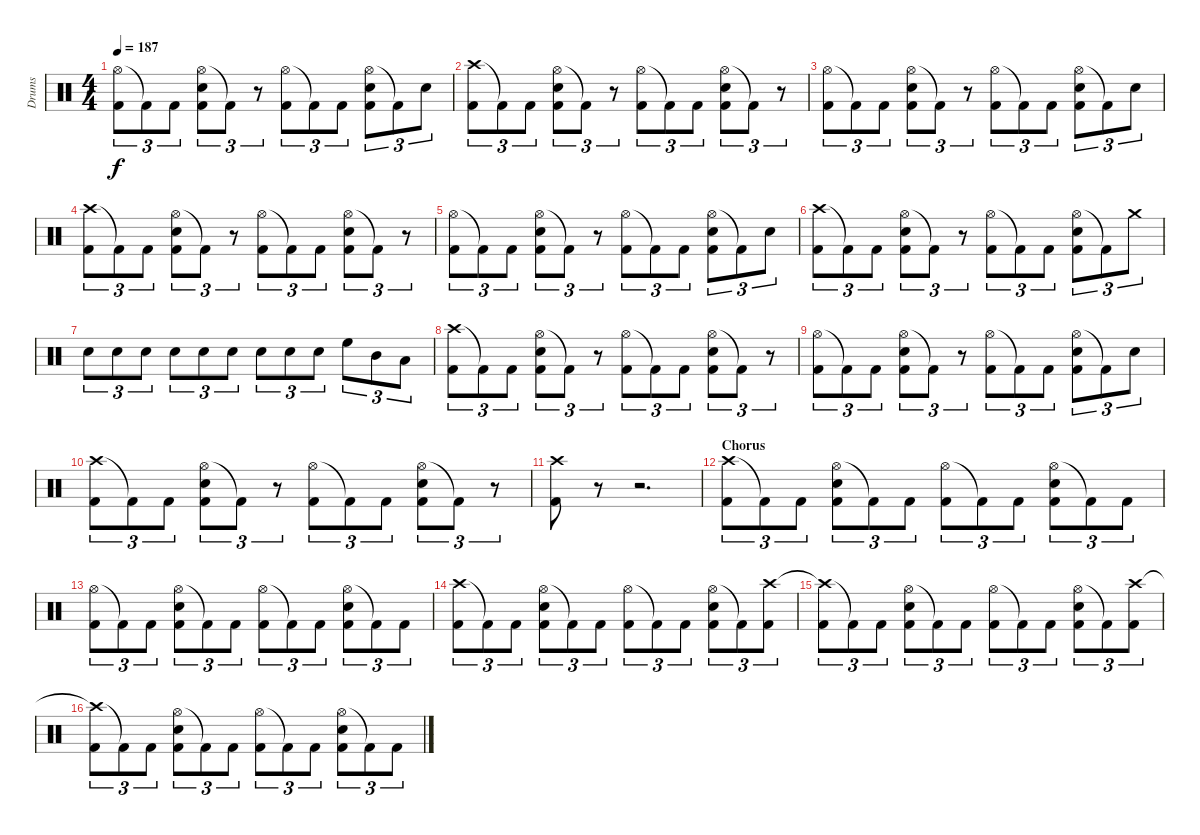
\track ("Drums" "Drums") {instrument percussion}
\staff {score}
\articulation defaults
\ts (4 4)
\tempo 187
\clef neutral
\ks c
("Hi-Hat (open)" "Kick (hit) 2").8{tu (3 2) dy f} "Kick (hit) 2"{t}.8{tu (3 2)} "Kick (hit) 2".8{tu (3 2)} ("Hi-Hat (open)" "Snare (hit) 2" "Kick (hit) 2").8{tu (3 2)} "Kick (hit) 2"{t}.8{tu (3 2)} r.8{tu (3 2)} ("Hi-Hat (open)" "Kick (hit) 2").8{tu (3 2)} "Kick (hit) 2"{t}.8{tu (3 2)} "Kick (hit) 2".8{tu (3 2)} ("Hi-Hat (open)" "Snare (hit) 2" "Kick (hit) 2").8{tu (3 2)} "Kick (hit) 2"{t}.8{tu (3 2)} "Snare (hit) 2".8{tu (3 2)} |
("Crash high (hit)" "Kick (hit) 2").8{tu (3 2)} "Kick (hit) 2"{t}.8{tu (3 2)} "Kick (hit) 2".8{tu (3 2)} ("Hi-Hat (open)" "Snare (hit) 2" "Kick (hit) 2").8{tu (3 2)} "Kick (hit) 2"{t}.8{tu (3 2)} r.8{tu (3 2)} ("Hi-Hat (open)" "Kick (hit) 2").8{tu (3 2)} "Kick (hit) 2"{t}.8{tu (3 2)} "Kick (hit) 2".8{tu (3 2)} ("Hi-Hat (open)" "Snare (hit) 2" "Kick (hit) 2").8{tu (3 2)} "Kick (hit) 2"{t}.8{tu (3 2)} r.8{tu (3 2)} |
("Hi-Hat (open)" "Kick (hit) 2").8{tu (3 2)} "Kick (hit) 2"{t}.8{tu (3 2)} "Kick (hit) 2".8{tu (3 2)} ("Hi-Hat (open)" "Snare (hit) 2" "Kick (hit) 2").8{tu (3 2)} "Kick (hit) 2"{t}.8{tu (3 2)} r.8{tu (3 2)} ("Hi-Hat (open)" "Kick (hit) 2").8{tu (3 2)} "Kick (hit) 2"{t}.8{tu (3 2)} "Kick (hit) 2".8{tu (3 2)} ("Hi-Hat (open)" "Snare (hit) 2" "Kick (hit) 2").8{tu (3 2)} "Kick (hit) 2"{t}.8{tu (3 2)} "Snare (hit) 2".8{tu (3 2)} |
("Crash high (hit)" "Kick (hit) 2").8{tu (3 2)} "Kick (hit) 2"{t}.8{tu (3 2)} "Kick (hit) 2".8{tu (3 2)} ("Hi-Hat (open)" "Snare (hit) 2" "Kick (hit) 2").8{tu (3 2)} "Kick (hit) 2"{t}.8{tu (3 2)} r.8{tu (3 2)} ("Hi-Hat (open)" "Kick (hit) 2").8{tu (3 2)} "Kick (hit) 2"{t}.8{tu (3 2)} "Kick (hit) 2".8{tu (3 2)} ("Hi-Hat (open)" "Snare (hit) 2" "Kick (hit) 2").8{tu (3 2)} "Kick (hit) 2"{t}.8{tu (3 2)} r.8{tu (3 2)} |
("Hi-Hat (open)" "Kick (hit) 2").8{tu (3 2)} "Kick (hit) 2"{t}.8{tu (3 2)} "Kick (hit) 2".8{tu (3 2)} ("Hi-Hat (open)" "Snare (hit) 2" "Kick (hit) 2").8{tu (3 2)} "Kick (hit) 2"{t}.8{tu (3 2)} r.8{tu (3 2)} ("Hi-Hat (open)" "Kick (hit) 2").8{tu (3 2)} "Kick (hit) 2"{t}.8{tu (3 2)} "Kick (hit) 2".8{tu (3 2)} ("Hi-Hat (open)" "Snare (hit) 2" "Kick (hit) 2").8{tu (3 2)} "Kick (hit) 2"{t}.8{tu (3 2)} "Snare (hit) 2".8{tu (3 2)} |
("Crash high (hit)" "Kick (hit) 2").8{tu (3 2)} "Kick (hit) 2"{t}.8{tu (3 2)} "Kick (hit) 2".8{tu (3 2)} ("Hi-Hat (open)" "Snare (hit) 2" "Kick (hit) 2").8{tu (3 2)} "Kick (hit) 2"{t}.8{tu (3 2)} r.8{tu (3 2)} ("Hi-Hat (open)" "Kick (hit) 2").8{tu (3 2)} "Kick (hit) 2"{t}.8{tu (3 2)} "Kick (hit) 2".8{tu (3 2)} ("Hi-Hat (open)" "Snare (hit) 2" "Kick (hit) 2").8{tu (3 2)} "Kick (hit) 2"{t}.8{tu (3 2)} "Crash medium (hit)".8{tu (3 2)} |
"Snare (hit) 2".8{tu (3 2)} "Snare (hit) 2".8{tu (3 2)} "Snare (hit) 2".8{tu (3 2)} "Snare (hit) 2".8{tu (3 2)} "Snare (hit) 2".8{tu (3 2)} "Snare (hit) 2".8{tu (3 2)} "Snare (hit) 2".8{tu (3 2)} "Snare (hit) 2".8{tu (3 2)} "Snare (hit) 2".8{tu (3 2)} "High Floor Tom (hit)".8{tu (3 2)} "Mid Tom (hit)".8{tu (3 2)} "Low Tom (hit)".8{tu (3 2)} |
("Crash high (hit)" "Kick (hit) 2").8{tu (3 2)} "Kick (hit) 2"{t}.8{tu (3 2)} "Kick (hit) 2".8{tu (3 2)} ("Hi-Hat (open)" "Snare (hit) 2" "Kick (hit) 2").8{tu (3 2)} "Kick (hit) 2"{t}.8{tu (3 2)} r.8{tu (3 2)} ("Hi-Hat (open)" "Kick (hit) 2").8{tu (3 2)} "Kick (hit) 2"{t}.8{tu (3 2)} "Kick (hit) 2".8{tu (3 2)} ("Hi-Hat (open)" "Snare (hit) 2" "Kick (hit) 2").8{tu (3 2)} "Kick (hit) 2"{t}.8{tu (3 2)} r.8{tu (3 2)} |
("Hi-Hat (open)" "Kick (hit) 2").8{tu (3 2)} "Kick (hit) 2"{t}.8{tu (3 2)} "Kick (hit) 2".8{tu (3 2)} ("Hi-Hat (open)" "Snare (hit) 2" "Kick (hit) 2").8{tu (3 2)} "Kick (hit) 2"{t}.8{tu (3 2)} r.8{tu (3 2)} ("Hi-Hat (open)" "Kick (hit) 2").8{tu (3 2)} "Kick (hit) 2"{t}.8{tu (3 2)} "Kick (hit) 2".8{tu (3 2)} ("Hi-Hat (open)" "Snare (hit) 2" "Kick (hit) 2").8{tu (3 2)} "Kick (hit) 2"{t}.8{tu (3 2)} "Snare (hit) 2".8{tu (3 2)} |
("Crash high (hit)" "Kick (hit) 2").8{tu (3 2)} "Kick (hit) 2"{t}.8{tu (3 2)} "Kick (hit) 2".8{tu (3 2)} ("Hi-Hat (open)" "Snare (hit) 2" "Kick (hit) 2").8{tu (3 2)} "Kick (hit) 2"{t}.8{tu (3 2)} r.8{tu (3 2)} ("Hi-Hat (open)" "Kick (hit) 2").8{tu (3 2)} "Kick (hit) 2"{t}.8{tu (3 2)} "Kick (hit) 2".8{tu (3 2)} ("Hi-Hat (open)" "Snare (hit) 2" "Kick (hit) 2").8{tu (3 2)} "Kick (hit) 2"{t}.8{tu (3 2)} r.8{tu (3 2)} |
("Crash high (hit)" "Kick (hit) 2").8 r.8 r.2{d} |
\section ("" "Chorus")
("Crash high (hit)" "Kick (hit) 2").8{tu (3 2)} "Kick (hit) 2"{t}.8{tu (3 2)} "Kick (hit) 2".8{tu (3 2)} ("Hi-Hat (open)" "Snare (hit) 2" "Kick (hit) 2").8{tu (3 2)} "Kick (hit) 2"{t}.8{tu (3 2)} "Kick (hit) 2".8{tu (3 2)} ("Hi-Hat (open)" "Kick (hit) 2").8{tu (3 2)} "Kick (hit) 2"{t}.8{tu (3 2)} "Kick (hit) 2".8{tu (3 2)} ("Hi-Hat (open)" "Snare (hit) 2" "Kick (hit) 2").8{tu (3 2)} "Kick (hit) 2"{t}.8{tu (3 2)} "Kick (hit) 2".8{tu (3 2)} |
("Hi-Hat (open)" "Kick (hit) 2").8{tu (3 2)} "Kick (hit) 2"{t}.8{tu (3 2)} "Kick (hit) 2".8{tu (3 2)} ("Hi-Hat (open)" "Snare (hit) 2" "Kick (hit) 2").8{tu (3 2)} "Kick (hit) 2"{t}.8{tu (3 2)} "Kick (hit) 2".8{tu (3 2)} ("Hi-Hat (open)" "Kick (hit) 2").8{tu (3 2)} "Kick (hit) 2"{t}.8{tu (3 2)} "Kick (hit) 2".8{tu (3 2)} ("Hi-Hat (open)" "Snare (hit) 2" "Kick (hit) 2").8{tu (3 2)} "Kick (hit) 2"{t}.8{tu (3 2)} "Kick (hit) 2".8{tu (3 2)} |
("Crash high (hit)" "Kick (hit) 2").8{tu (3 2)} "Kick (hit) 2"{t}.8{tu (3 2)} "Kick (hit) 2".8{tu (3 2)} ("Hi-Hat (open)" "Snare (hit) 2" "Kick (hit) 2").8{tu (3 2)} "Kick (hit) 2"{t}.8{tu (3 2)} "Kick (hit) 2".8{tu (3 2)} ("Hi-Hat (open)" "Kick (hit) 2").8{tu (3 2)} "Kick (hit) 2"{t}.8{tu (3 2)} "Kick (hit) 2".8{tu (3 2)} ("Hi-Hat (open)" "Snare (hit) 2" "Kick (hit) 2").8{tu (3 2)} "Kick (hit) 2"{t}.8{tu (3 2)} ("Crash high (hit)" "Kick (hit) 2").8{tu (3 2)} |
("Crash high (hit)"{t} "Kick (hit) 2").8{tu (3 2)} "Kick (hit) 2"{t}.8{tu (3 2)} "Kick (hit) 2".8{tu (3 2)} ("Hi-Hat (open)" "Snare (hit) 2" "Kick (hit) 2").8{tu (3 2)} "Kick (hit) 2"{t}.8{tu (3 2)} "Kick (hit) 2".8{tu (3 2)} ("Hi-Hat (open)" "Kick (hit) 2").8{tu (3 2)} "Kick (hit) 2"{t}.8{tu (3 2)} "Kick (hit) 2".8{tu (3 2)} ("Hi-Hat (open)" "Snare (hit) 2" "Kick (hit) 2").8{tu (3 2)} "Kick (hit) 2"{t}.8{tu (3 2)} ("Crash high (hit)" "Kick (hit) 2").8{tu (3 2)} |
("Crash high (hit)"{t} "Kick (hit) 2").8{tu (3 2)} "Kick (hit) 2"{t}.8{tu (3 2)} "Kick (hit) 2".8{tu (3 2)} ("Hi-Hat (open)" "Snare (hit) 2" "Kick (hit) 2").8{tu (3 2)} "Kick (hit) 2"{t}.8{tu (3 2)} "Kick (hit) 2".8{tu (3 2)} ("Hi-Hat (open)" "Kick (hit) 2").8{tu (3 2)} "Kick (hit) 2"{t}.8{tu (3 2)} "Kick (hit) 2".8{tu (3 2)} ("Hi-Hat (open)" "Snare (hit) 2" "Kick (hit) 2").8{tu (3 2)} "Kick (hit) 2"{t}.8{tu (3 2)} "Kick (hit) 2".8{tu (3 2)}
